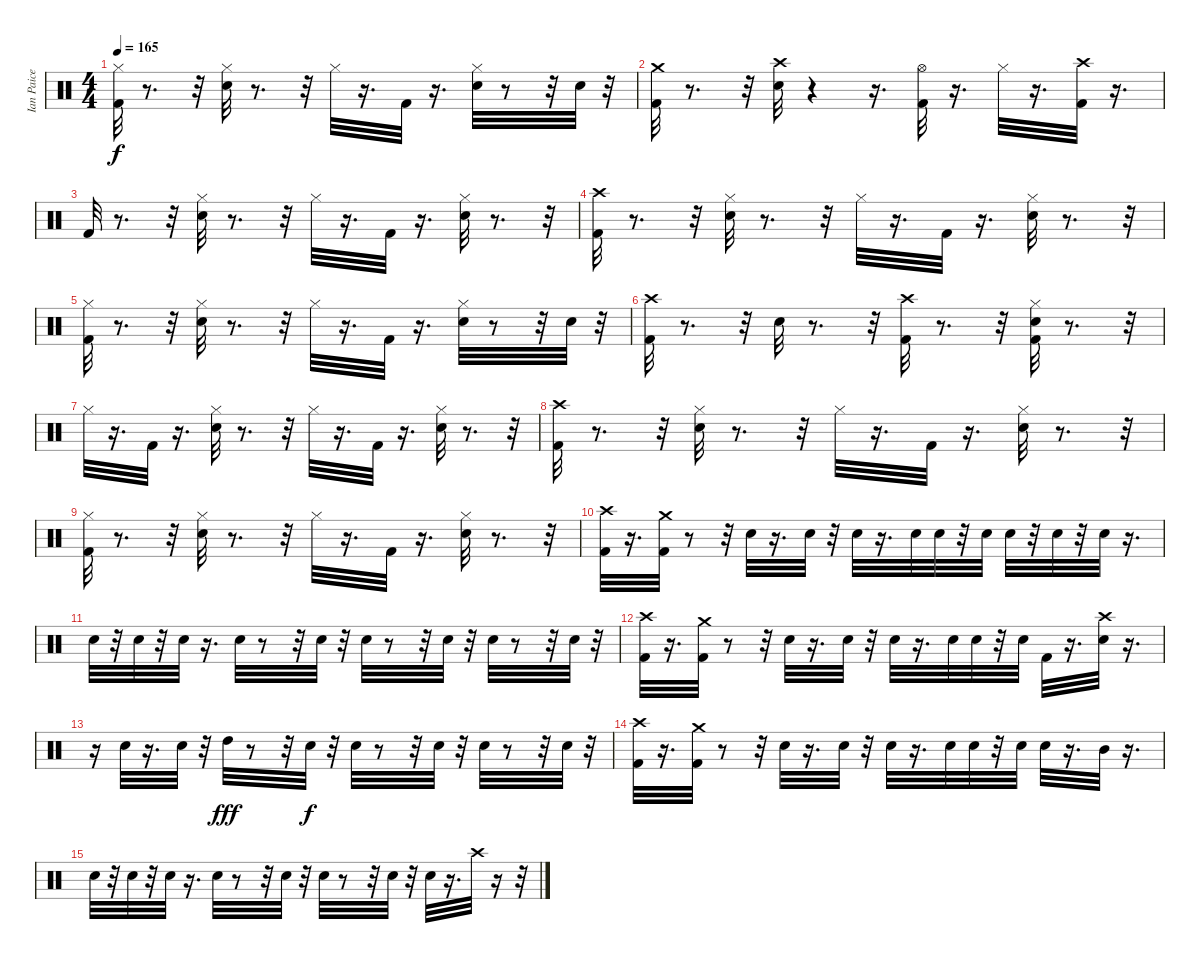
\track ("Ian Paice" "Ian Paice") {instrument percussion}
\staff {score}
\articulation defaults
\ts (4 4)
\tempo 165
\clef neutral
\ks c
("Hi-Hat (closed)" "Kick (hit) 2").32{dy f} r.8{d} r.32 ("Hi-Hat (closed)" "Snare (hit) 2").32 r.8{d} r.32 "Hi-Hat (closed)".32 r.16{d} "Kick (hit) 2".32 r.16{d} ("Hi-Hat (closed)" "Snare (hit) 2").32 r.8 r.32 "Snare (hit) 2".32 r.32 |
("Crash medium (hit)" "Kick (hit) 2").32 r.8{d} r.32 ("Snare (hit) 2" "Crash high (hit)").32 r.4 r.16{d} ("Hi-Hat (open)" "Kick (hit) 2").32 r.16{d} "Hi-Hat (closed)".32 r.16{d} ("Crash high (hit)" "Kick (hit) 2").32 r.16{d} |
"Kick (hit) 2".32 r.8{d} r.32 ("Hi-Hat (closed)" "Snare (hit) 2").32 r.8{d} r.32 "Hi-Hat (closed)".32 r.16{d} "Kick (hit) 2".32 r.16{d} ("Hi-Hat (closed)" "Snare (hit) 2").32 r.8{d} r.32 |
("Crash high (hit)" "Kick (hit) 2").32 r.8{d} r.32 ("Hi-Hat (closed)" "Snare (hit) 2").32 r.8{d} r.32 "Hi-Hat (closed)".32 r.16{d} "Kick (hit) 2".32 r.16{d} ("Hi-Hat (closed)" "Snare (hit) 2").32 r.8{d} r.32 |
("Kick (hit) 2" "Hi-Hat (closed)").32 r.8{d} r.32 ("Snare (hit) 2" "Hi-Hat (closed)").32 r.8{d} r.32 "Hi-Hat (closed)".32 r.16{d} "Kick (hit) 2".32 r.16{d} ("Snare (hit) 2" "Hi-Hat (closed)").32 r.8 r.32 "Snare (hit) 2".32 r.32 |
("Crash high (hit)" "Kick (hit) 2").32 r.8{d} r.32 "Snare (hit) 2".32 r.8{d} r.32 ("Kick (hit) 2" "Crash high (hit)").32 r.8{d} r.32 ("Hi-Hat (closed)" "Snare (hit) 2" "Kick (hit) 2").32 r.8{d} r.32 |
"Hi-Hat (closed)".32 r.16{d} "Kick (hit) 2".32 r.16{d} ("Snare (hit) 2" "Hi-Hat (closed)").32 r.8{d} r.32 "Hi-Hat (closed)".32 r.16{d} "Kick (hit) 2".32 r.16{d} ("Snare (hit) 2" "Hi-Hat (closed)").32 r.8{d} r.32 |
("Kick (hit) 2" "Crash high (hit)").32 r.8{d} r.32 ("Hi-Hat (closed)" "Snare (hit) 2").32 r.8{d} r.32 "Hi-Hat (closed)".32 r.16{d} "Kick (hit) 2".32 r.16{d} ("Hi-Hat (closed)" "Snare (hit) 2").32 r.8{d} r.32 |
("Hi-Hat (closed)" "Kick (hit) 2").32 r.8{d} r.32 ("Hi-Hat (closed)" "Snare (hit) 2").32 r.8{d} r.32 "Hi-Hat (closed)".32 r.16{d} "Kick (hit) 2".32 r.16{d} ("Hi-Hat (closed)" "Snare (hit) 2").32 r.8{d} r.32 |
("Crash high (hit)" "Kick (hit) 2").32 r.16{d} ("Crash medium (hit)" "Kick (hit) 2").32 r.8 r.32 "Snare (hit) 2".32 r.16{d} "Snare (hit) 2".32 r.32 "Snare (hit) 2".32 r.16{d} "Snare (hit) 2".32 "Snare (hit) 2".32 r.32 "Snare (hit) 2".32 "Snare (hit) 2".32 r.32 "Snare (hit) 2".32 r.32 "Snare (hit) 2".32 r.16{d} |
"Snare (hit) 2".32 r.32 "Snare (hit) 2".32 r.32 "Snare (hit) 2".32 r.16{d} "Snare (hit) 2".32 r.8 r.32 "Snare (hit) 2".32 r.32 "Snare (hit) 2".32 r.8 r.32 "Snare (hit) 2".32 r.32 "Snare (hit) 2".32 r.8 r.32 "Snare (hit) 2".32 r.32 |
("Crash high (hit)" "Kick (hit) 2").32 r.16{d} ("Crash medium (hit)" "Kick (hit) 2").32 r.8 r.32 "Snare (hit) 2".32 r.16{d} "Snare (hit) 2".32 r.32 "Snare (hit) 2".32 r.16{d} "Snare (hit) 2".32 "Snare (hit) 2".32 r.32 "Snare (hit) 2".32 "Kick (hit) 2".32 r.16{d} ("Crash high (hit)" "Snare (hit) 2").32 r.16{d} |
r.16 "Snare (hit) 2".32 r.16{d} "Snare (hit) 2".32 r.32 "High Tom (hit)".32{dy fff} r.8 r.32 "Snare (hit) 2".32{dy f} r.32 "Snare (hit) 2".32 r.8 r.32 "Snare (hit) 2".32 r.32 "Snare (hit) 2".32 r.8 r.32 "Snare (hit) 2".32 r.32 |
("Crash high (hit)" "Kick (hit) 2").32 r.16{d} ("Crash medium (hit)" "Kick (hit) 2").32 r.8 r.32 "Snare (hit) 2".32 r.16{d} "Snare (hit) 2".32 r.32 "Snare (hit) 2".32 r.16{d} "Snare (hit) 2".32 "Snare (hit) 2".32 r.32 "Snare (hit) 2".32 "Snare (hit) 2".32 r.16{d} "Mid Tom (hit)".32 r.16{d} |
"Snare (hit) 2".32 r.32 "Snare (hit) 2".32 r.32 "Snare (hit) 2".32 r.16{d} "Snare (hit) 2".32 r.8 r.32 "Snare (hit) 2".32 r.32 "Snare (hit) 2".32 r.8 r.32 "Snare (hit) 2".32 r.32 "Snare (hit) 2".32 r.16{d} "Crash high (hit)".32{volume 16} r.16 r.32
